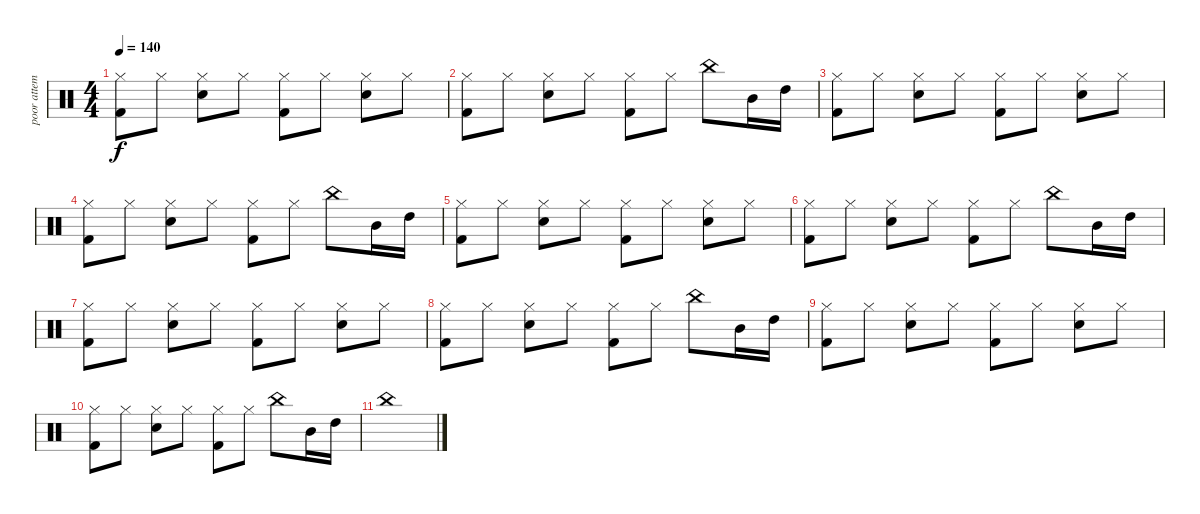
\track ("poor attempt at zac's part" "poor attem") {instrument percussion}
\staff {score}
\articulation defaults
\ts (4 4)
\tempo 140
\clef neutral
\ks c
("Kick (hit) 2" "Hi-Hat (closed)").8{dy f} "Hi-Hat (closed)".8 ("Snare (hit) 2" "Hi-Hat (closed)").8 "Hi-Hat (closed)".8 ("Kick (hit) 2" "Hi-Hat (closed)").8 "Hi-Hat (closed)".8 ("Snare (hit) 2" "Hi-Hat (closed)").8 "Hi-Hat (closed)".8 |
("Kick (hit) 2" "Hi-Hat (closed)").8 "Hi-Hat (closed)".8 ("Snare (hit) 2" "Hi-Hat (closed)").8 "Hi-Hat (closed)".8 ("Kick (hit) 2" "Hi-Hat (closed)").8 "Hi-Hat (closed)".8 "China (hit)".8 "Mid Tom (hit)".16 "High Tom (hit)".16 |
("Kick (hit) 2" "Hi-Hat (closed)").8 "Hi-Hat (closed)".8 ("Snare (hit) 2" "Hi-Hat (closed)").8 "Hi-Hat (closed)".8 ("Kick (hit) 2" "Hi-Hat (closed)").8 "Hi-Hat (closed)".8 ("Snare (hit) 2" "Hi-Hat (closed)").8 "Hi-Hat (closed)".8 |
("Kick (hit) 2" "Hi-Hat (closed)").8 "Hi-Hat (closed)".8 ("Snare (hit) 2" "Hi-Hat (closed)").8 "Hi-Hat (closed)".8 ("Kick (hit) 2" "Hi-Hat (closed)").8 "Hi-Hat (closed)".8 "China (hit)".8 "Mid Tom (hit)".16 "High Tom (hit)".16 |
("Kick (hit) 2" "Hi-Hat (closed)").8 "Hi-Hat (closed)".8 ("Snare (hit) 2" "Hi-Hat (closed)").8 "Hi-Hat (closed)".8 ("Kick (hit) 2" "Hi-Hat (closed)").8 "Hi-Hat (closed)".8 ("Snare (hit) 2" "Hi-Hat (closed)").8 "Hi-Hat (closed)".8 |
("Kick (hit) 2" "Hi-Hat (closed)").8 "Hi-Hat (closed)".8 ("Snare (hit) 2" "Hi-Hat (closed)").8 "Hi-Hat (closed)".8 ("Kick (hit) 2" "Hi-Hat (closed)").8 "Hi-Hat (closed)".8 "China (hit)".8 "Mid Tom (hit)".16 "High Tom (hit)".16 |
("Kick (hit) 2" "Hi-Hat (closed)").8 "Hi-Hat (closed)".8 ("Snare (hit) 2" "Hi-Hat (closed)").8 "Hi-Hat (closed)".8 ("Kick (hit) 2" "Hi-Hat (closed)").8 "Hi-Hat (closed)".8 ("Snare (hit) 2" "Hi-Hat (closed)").8 "Hi-Hat (closed)".8 |
("Kick (hit) 2" "Hi-Hat (closed)").8 "Hi-Hat (closed)".8 ("Snare (hit) 2" "Hi-Hat (closed)").8 "Hi-Hat (closed)".8 ("Kick (hit) 2" "Hi-Hat (closed)").8 "Hi-Hat (closed)".8 "China (hit)".8 "Mid Tom (hit)".16 "High Tom (hit)".16 |
("Kick (hit) 2" "Hi-Hat (closed)").8 "Hi-Hat (closed)".8 ("Snare (hit) 2" "Hi-Hat (closed)").8 "Hi-Hat (closed)".8 ("Kick (hit) 2" "Hi-Hat (closed)").8 "Hi-Hat (closed)".8 ("Snare (hit) 2" "Hi-Hat (closed)").8 "Hi-Hat (closed)".8 |
("Kick (hit) 2" "Hi-Hat (closed)").8 "Hi-Hat (closed)".8 ("Snare (hit) 2" "Hi-Hat (closed)").8 "Hi-Hat (closed)".8 ("Kick (hit) 2" "Hi-Hat (closed)").8 "Hi-Hat (closed)".8 "China (hit)".8 "Mid Tom (hit)".16 "High Tom (hit)".16 |
"China (hit)".1
